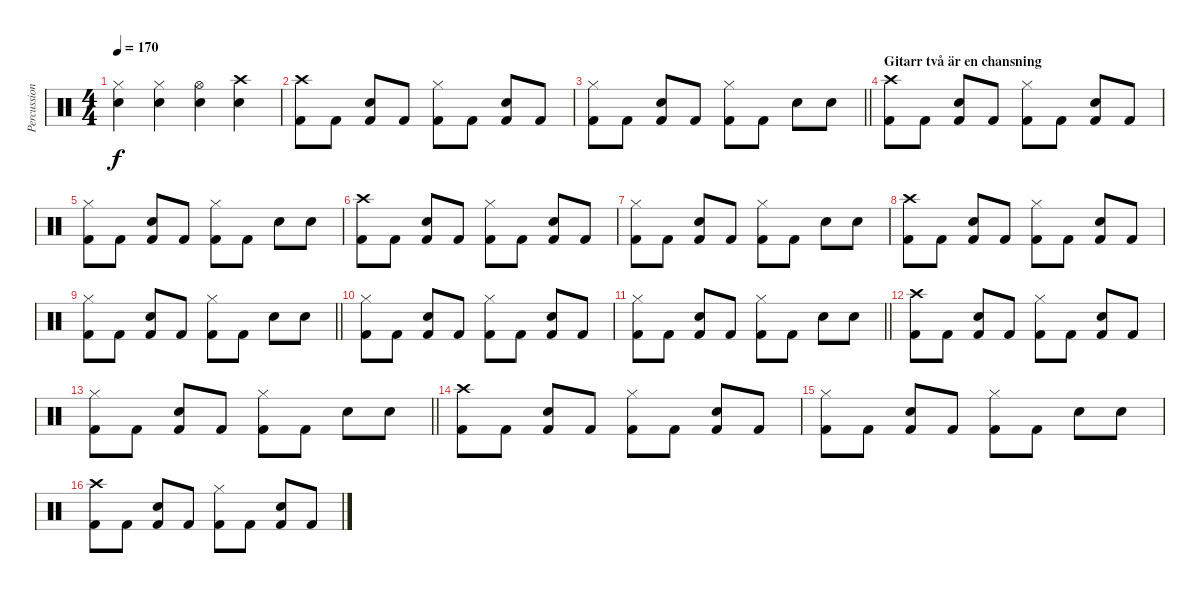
\track ("Percussion" "Percussion") {instrument percussion}
\staff {score}
\articulation defaults
\ts (4 4)
\tempo 170
\clef neutral
\ks c
("Hi-Hat (closed)" "Electric Snare (hit)").4{dy f} ("Hi-Hat (closed)" "Electric Snare (hit)").4 ("Hi-Hat (open)" "Electric Snare (hit)").4 ("Crash high (hit)" "Electric Snare (hit)").4 |
("Kick (hit) 2" "Crash high (hit)").8 "Kick (hit) 2".8 ("Kick (hit) 2" "Electric Snare (hit)").8 "Kick (hit) 2".8 ("Kick (hit) 2" "Hi-Hat (closed)").8 "Kick (hit) 2".8 ("Kick (hit) 2" "Electric Snare (hit)").8 "Kick (hit) 2".8 |
\barLineRight lightlight
("Kick (hit) 2" "Hi-Hat (closed)").8 "Kick (hit) 2".8 ("Kick (hit) 2" "Electric Snare (hit)").8 "Kick (hit) 2".8 ("Kick (hit) 2" "Hi-Hat (closed)").8 "Kick (hit) 2".8 "Electric Snare (hit)".8 "Electric Snare (hit)".8 |
\section ("" "Gitarr två är en chansning")
("Kick (hit) 2" "Crash high (hit)").8 "Kick (hit) 2".8 ("Kick (hit) 2" "Electric Snare (hit)").8 "Kick (hit) 2".8 ("Kick (hit) 2" "Hi-Hat (closed)").8 "Kick (hit) 2".8 ("Kick (hit) 2" "Electric Snare (hit)").8 "Kick (hit) 2".8 |
("Kick (hit) 2" "Hi-Hat (closed)").8 "Kick (hit) 2".8 ("Kick (hit) 2" "Electric Snare (hit)").8 "Kick (hit) 2".8 ("Kick (hit) 2" "Hi-Hat (closed)").8 "Kick (hit) 2".8 "Electric Snare (hit)".8 "Electric Snare (hit)".8 |
("Kick (hit) 2" "Crash high (hit)").8 "Kick (hit) 2".8 ("Kick (hit) 2" "Electric Snare (hit)").8 "Kick (hit) 2".8 ("Kick (hit) 2" "Hi-Hat (closed)").8 "Kick (hit) 2".8 ("Kick (hit) 2" "Electric Snare (hit)").8 "Kick (hit) 2".8 |
("Kick (hit) 2" "Hi-Hat (closed)").8 "Kick (hit) 2".8 ("Kick (hit) 2" "Electric Snare (hit)").8 "Kick (hit) 2".8 ("Kick (hit) 2" "Hi-Hat (closed)").8 "Kick (hit) 2".8 "Electric Snare (hit)".8 "Electric Snare (hit)".8 |
("Kick (hit) 2" "Crash high (hit)").8 "Kick (hit) 2".8 ("Kick (hit) 2" "Electric Snare (hit)").8 "Kick (hit) 2".8 ("Kick (hit) 2" "Hi-Hat (closed)").8 "Kick (hit) 2".8 ("Kick (hit) 2" "Electric Snare (hit)").8 "Kick (hit) 2".8 |
\barLineRight lightlight
("Kick (hit) 2" "Hi-Hat (closed)").8 "Kick (hit) 2".8 ("Kick (hit) 2" "Electric Snare (hit)").8 "Kick (hit) 2".8 ("Kick (hit) 2" "Hi-Hat (closed)").8 "Kick (hit) 2".8 "Electric Snare (hit)".8 "Electric Snare (hit)".8 |
("Kick (hit) 2" "Hi-Hat (closed)").8 "Kick (hit) 2".8 ("Kick (hit) 2" "Electric Snare (hit)").8 "Kick (hit) 2".8 ("Kick (hit) 2" "Hi-Hat (closed)").8 "Kick (hit) 2".8 ("Kick (hit) 2" "Electric Snare (hit)").8 "Kick (hit) 2".8 |
\barLineRight lightlight
("Kick (hit) 2" "Hi-Hat (closed)").8 "Kick (hit) 2".8 ("Kick (hit) 2" "Electric Snare (hit)").8 "Kick (hit) 2".8 ("Kick (hit) 2" "Hi-Hat (closed)").8 "Kick (hit) 2".8 "Electric Snare (hit)".8 "Electric Snare (hit)".8 |
("Kick (hit) 2" "Crash high (hit)").8 "Kick (hit) 2".8 ("Kick (hit) 2" "Electric Snare (hit)").8 "Kick (hit) 2".8 ("Kick (hit) 2" "Hi-Hat (closed)").8 "Kick (hit) 2".8 ("Kick (hit) 2" "Electric Snare (hit)").8 "Kick (hit) 2".8 |
\barLineRight lightlight
("Kick (hit) 2" "Hi-Hat (closed)").8 "Kick (hit) 2".8 ("Kick (hit) 2" "Electric Snare (hit)").8 "Kick (hit) 2".8 ("Kick (hit) 2" "Hi-Hat (closed)").8 "Kick (hit) 2".8 "Electric Snare (hit)".8 "Electric Snare (hit)".8 |
("Kick (hit) 2" "Crash high (hit)").8 "Kick (hit) 2".8 ("Kick (hit) 2" "Electric Snare (hit)").8 "Kick (hit) 2".8 ("Kick (hit) 2" "Hi-Hat (closed)").8 "Kick (hit) 2".8 ("Kick (hit) 2" "Electric Snare (hit)").8 "Kick (hit) 2".8 |
("Kick (hit) 2" "Hi-Hat (closed)").8 "Kick (hit) 2".8 ("Kick (hit) 2" "Electric Snare (hit)").8 "Kick (hit) 2".8 ("Kick (hit) 2" "Hi-Hat (closed)").8 "Kick (hit) 2".8 "Electric Snare (hit)".8 "Electric Snare (hit)".8 |
("Kick (hit) 2" "Crash high (hit)").8 "Kick (hit) 2".8 ("Kick (hit) 2" "Electric Snare (hit)").8 "Kick (hit) 2".8 ("Kick (hit) 2" "Hi-Hat (closed)").8 "Kick (hit) 2".8 ("Kick (hit) 2" "Electric Snare (hit)").8 "Kick (hit) 2".8
